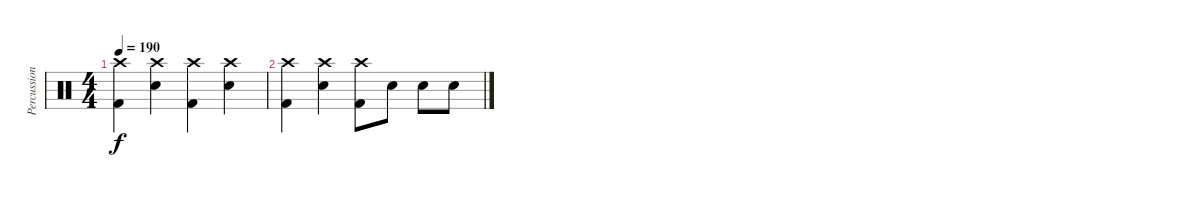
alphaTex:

\track ("Percussions" "Percussion") {instrument percussion}
\staff {score}
\articulation defaults
\ts (4 4)
\tempo 190
\clef neutral
\ks c
("Crash high (hit)" "Kick (hit) 2").4{dy f} ("Crash high (hit)" "Electric Snare (hit)").4 ("Crash high (hit)" "Kick (hit) 2").4 ("Crash high (hit)" "Electric Snare (hit)").4 |
("Crash high (hit)" "Kick (hit) 2").4 ("Crash high (hit)" "Electric Snare (hit)").4 ("Crash high (hit)" "Kick (hit) 2").8 "Electric Snare (hit)".8 "Electric Snare (hit)".8 "Electric Snare (hit)".8
